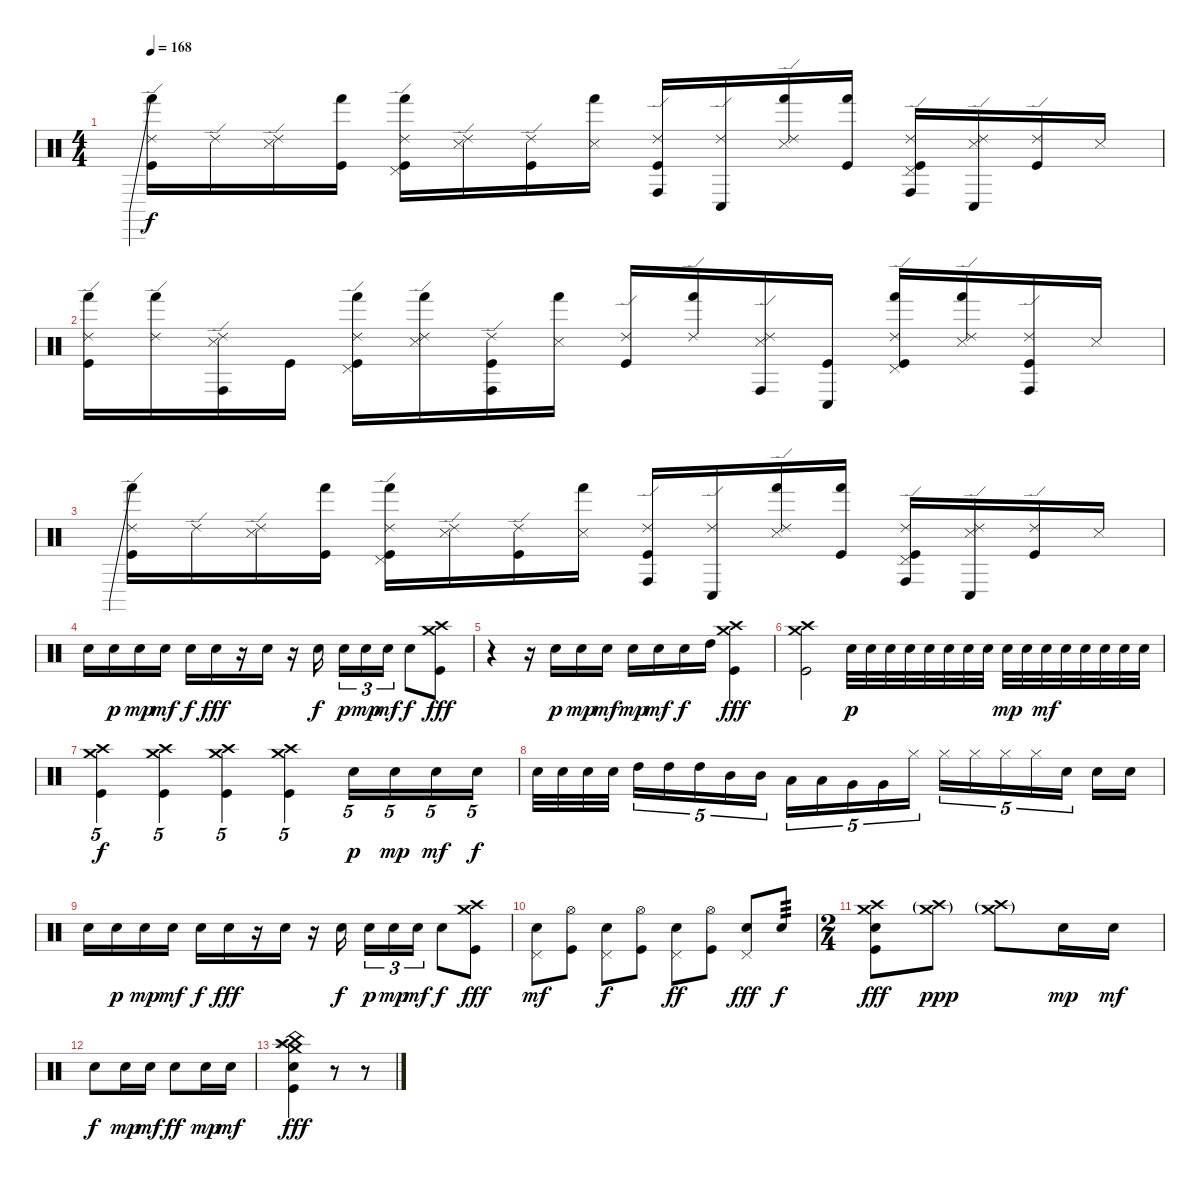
\track "" {instrument percussion}
\staff {score}
\articulation defaults
\ts (4 4)
\tempo 168
\clef neutral
\ks c
("Ride (edge) 2" "Hand (hit)"{be (prebend 0 12 60 12)} "Kick (hit)").16{dy f} "Ride (edge) 2".16 ("Ride (edge) 2" "Snare (side stick) 3").16 ("Hand (hit)" "Kick (hit)").16 ("Ride (edge) 2" "Pedal Hi-Hat (hit)" "Hand (hit)" "Kick (hit)").16 ("Ride (edge) 2" "Snare (side stick) 3").16 ("Ride (edge) 2" "Kick (hit)").16 ("Snare (side stick) 3" "Hand (hit)").16 ("Ride (edge) 2" "Conga high (hit)" "Kick (hit)").16 ("Ride (edge) 2" "Conga low (hit)").16 ("Ride (edge) 2" "Snare (side stick) 3" "Hand (hit)").16 ("Hand (hit)" "Kick (hit)").16 ("Ride (edge) 2" "Pedal Hi-Hat (hit)" "Conga high (hit)" "Kick (hit)").16 ("Ride (edge) 2" "Snare (side stick) 3" "Conga low (hit)").16 ("Ride (edge) 2" "Kick (hit)").16 "Snare (side stick) 3".16 |
("Ride (edge) 2" "Hand (hit)" "Kick (hit)").16 ("Ride (edge) 2" "Hand (hit)").16 ("Ride (edge) 2" "Snare (side stick) 3" "Conga high (hit)").16 "Kick (hit)".16 ("Ride (edge) 2" "Pedal Hi-Hat (hit)" "Hand (hit)" "Kick (hit)").16 ("Ride (edge) 2" "Snare (side stick) 3" "Hand (hit)").16 ("Ride (edge) 2" "Conga high (hit)" "Kick (hit)").16 ("Snare (side stick) 3" "Hand (hit)").16 ("Ride (edge) 2" "Kick (hit)").16 ("Ride (edge) 2" "Hand (hit)").16 ("Ride (edge) 2" "Snare (side stick) 3" "Conga high (hit)").16 ("Conga low (hit)" "Kick (hit)").16 ("Ride (edge) 2" "Pedal Hi-Hat (hit)" "Hand (hit)" "Kick (hit)").16 ("Ride (edge) 2" "Snare (side stick) 3" "Hand (hit)").16 ("Ride (edge) 2" "Conga high (hit)" "Kick (hit)").16 "Snare (side stick) 3".16 |
("Ride (edge) 2" "Hand (hit)"{be (prebend 0 12 60 12)} "Kick (hit)").16 "Ride (edge) 2".16 ("Ride (edge) 2" "Snare (side stick) 3").16 ("Hand (hit)" "Kick (hit)").16 ("Ride (edge) 2" "Pedal Hi-Hat (hit)" "Hand (hit)" "Kick (hit)").16 ("Ride (edge) 2" "Snare (side stick) 3").16 ("Ride (edge) 2" "Kick (hit)").16 ("Snare (side stick) 3" "Hand (hit)").16 ("Ride (edge) 2" "Conga high (hit)" "Kick (hit)").16 ("Ride (edge) 2" "Conga low (hit)").16 ("Ride (edge) 2" "Snare (side stick) 3" "Hand (hit)").16 ("Hand (hit)" "Kick (hit)").16 ("Ride (edge) 2" "Pedal Hi-Hat (hit)" "Conga high (hit)" "Kick (hit)").16 ("Ride (edge) 2" "Snare (side stick) 3" "Conga low (hit)").16 ("Ride (edge) 2" "Kick (hit)").16 "Snare (side stick) 3".16 |
"Electric Snare (hit)".16 "Electric Snare (hit)".16{dy p} "Electric Snare (hit)".16{dy mp} "Electric Snare (hit)".16{dy mf} "Electric Snare (hit)".16{dy f} "Electric Snare (hit)".16{dy fff} r.16 "Electric Snare (hit)".16 r.16 "Electric Snare (hit)".16{dy f} "Electric Snare (hit)".16{tu (3 2) dy p} "Electric Snare (hit)".16{tu (3 2) dy mp} "Electric Snare (hit)".16{tu (3 2) dy mf} "Electric Snare (hit)".8{dy f} ("Crash high (hit)" "Crash medium (hit)" "Kick (hit)").8{dy fff} |
r.4 r.16 "Electric Snare (hit)".16{dy p} "Electric Snare (hit)".16{dy mp} "Electric Snare (hit)".16{dy mf} "Electric Snare (hit)".16{dy mp} "Electric Snare (hit)".16{dy mf} "Electric Snare (hit)".16{dy f} "High Tom (hit)".16 ("Crash high (hit)" "Crash medium (hit)" "Kick (hit)").4{dy fff} |
("Crash high (hit)" "Crash medium (hit)" "Kick (hit)").2 "Electric Snare (hit)".32{dy p} "Electric Snare (hit)".32 "Electric Snare (hit)".32 "Electric Snare (hit)".32 "Electric Snare (hit)".32 "Electric Snare (hit)".32 "Electric Snare (hit)".32 "Electric Snare (hit)".32 "Electric Snare (hit)".32{dy mp} "Electric Snare (hit)".32 "Electric Snare (hit)".32{dy mf} "Electric Snare (hit)".32 "Electric Snare (hit)".32 "Electric Snare (hit)".32 "Electric Snare (hit)".32 "Electric Snare (hit)".32 |
("Crash high (hit)" "Crash medium (hit)" "Kick (hit)").4{tu (5 4) dy f} ("Crash high (hit)" "Crash medium (hit)" "Kick (hit)").4{tu (5 4)} ("Crash high (hit)" "Crash medium (hit)" "Kick (hit)").4{tu (5 4)} ("Crash high (hit)" "Crash medium (hit)" "Kick (hit)").4{tu (5 4)} "Electric Snare (hit)".16{tu (5 4) dy p} "Electric Snare (hit)".16{tu (5 4) dy mp} "Electric Snare (hit)".16{tu (5 4) dy mf} "Electric Snare (hit)".16{tu (5 4) dy f} |
"Electric Snare (hit)".32 "Electric Snare (hit)".32 "Electric Snare (hit)".32 "Electric Snare (hit)".32 "High Tom (hit)".16{tu (5 4)} "High Tom (hit)".16{tu (5 4)} "High Tom (hit)".16{tu (5 4)} "Mid Tom (hit)".16{tu (5 4)} "Mid Tom (hit)".16{tu (5 4)} "Low Tom (hit)".16{tu (5 4)} "Low Tom (hit)".16{tu (5 4)} "Very Low Tom (hit)".16{tu (5 4)} "Very Low Tom (hit)".16{tu (5 4)} "Hi-Hat (closed)".16{tu (5 4)} "Hi-Hat (closed)".16{tu (5 4)} "Hi-Hat (closed)".16{tu (5 4)} "Hi-Hat (closed)".16{tu (5 4)} "Hi-Hat (closed)".16{tu (5 4)} "Electric Snare (hit)".16{tu (5 4)} "Electric Snare (hit)".16 "Electric Snare (hit)".16 |
"Electric Snare (hit)".16 "Electric Snare (hit)".16{dy p} "Electric Snare (hit)".16{dy mp} "Electric Snare (hit)".16{dy mf} "Electric Snare (hit)".16{dy f} "Electric Snare (hit)".16{dy fff} r.16 "Electric Snare (hit)".16 r.16 "Electric Snare (hit)".16{dy f} "Electric Snare (hit)".16{tu (3 2) dy p} "Electric Snare (hit)".16{tu (3 2) dy mp} "Electric Snare (hit)".16{tu (3 2) dy mf} "Electric Snare (hit)".8{dy f} ("Crash high (hit)" "Crash medium (hit)" "Kick (hit)").8{dy fff} |
("Pedal Hi-Hat (hit)" "Electric Snare (hit)").8{dy mf} ("Hi-Hat (open)" "Kick (hit)").8 ("Pedal Hi-Hat (hit)" "Electric Snare (hit)").8{dy f} ("Hi-Hat (open)" "Kick (hit)").8 ("Pedal Hi-Hat (hit)" "Electric Snare (hit)").8{dy ff} ("Hi-Hat (open)" "Kick (hit)").8 ("Pedal Hi-Hat (hit)" "Electric Snare (hit)").8{dy fff} "Electric Snare (hit)".8{tp 3 dy f} |
\ts (2 4)
("Crash medium (hit)" "Crash high (hit)" "Electric Snare (hit)" "Kick (hit)").8{dy fff} ("Crash medium (hit)"{g} "Crash high (hit)"{g}).8{dy ppp} ("Crash medium (hit)"{g} "Crash high (hit)"{g}).8 "Electric Snare (hit)".16{dy mp} "Electric Snare (hit)".16{dy mf} |
"Electric Snare (hit)".8{dy f} "Electric Snare (hit)".16{dy mp} "Electric Snare (hit)".16{dy mf} "Electric Snare (hit)".8{dy ff} "Electric Snare (hit)".16{dy mp} "Electric Snare (hit)".16{dy mf} |
("Crash high (hit)" "Crash medium (hit)" "Electric Snare (hit)" "Splash (hit)" "China (hit)" "Kick (hit)").4{dy fff} r.8 r.8
